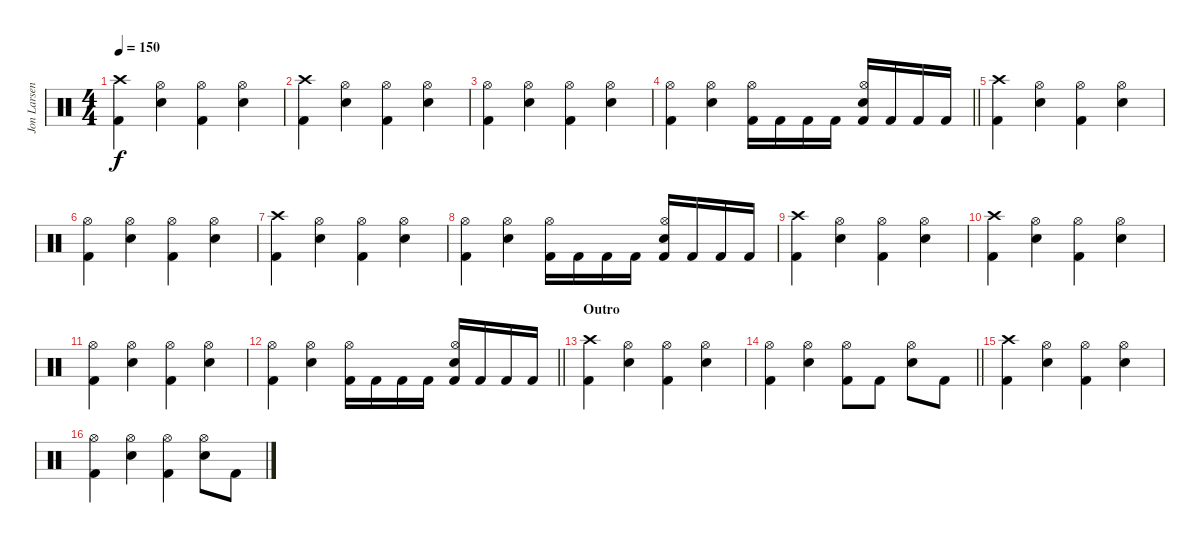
\track ("Jon Larsen" "Jon Larsen") {instrument percussion bank 10}
\staff {score}
\articulation defaults
\ts (4 4)
\tempo 150
\clef neutral
\ks c
("Crash high (hit)" "Kick (hit) 2").4{dy f} ("Hi-Hat (open)" "Electric Snare (hit)").4 ("Hi-Hat (open)" "Kick (hit) 2").4 ("Hi-Hat (open)" "Electric Snare (hit)").4 |
("Crash high (hit)" "Kick (hit) 2").4 ("Hi-Hat (open)" "Electric Snare (hit)").4 ("Hi-Hat (open)" "Kick (hit) 2").4 ("Hi-Hat (open)" "Electric Snare (hit)").4 |
("Hi-Hat (open)" "Kick (hit) 2").4 ("Hi-Hat (open)" "Electric Snare (hit)").4 ("Hi-Hat (open)" "Kick (hit) 2").4 ("Hi-Hat (open)" "Electric Snare (hit)").4 |
\barLineRight lightlight
("Hi-Hat (open)" "Kick (hit) 2").4 ("Hi-Hat (open)" "Electric Snare (hit)").4 ("Hi-Hat (open)" "Kick (hit) 2").16 "Kick (hit) 2".16 "Kick (hit) 2".16 "Kick (hit) 2".16 ("Hi-Hat (open)" "Electric Snare (hit)" "Kick (hit) 2").16 "Kick (hit) 2".16 "Kick (hit) 2".16 "Kick (hit) 2".16 |
("Crash high (hit)" "Kick (hit) 2").4 ("Hi-Hat (open)" "Electric Snare (hit)").4 ("Hi-Hat (open)" "Kick (hit) 2").4 ("Hi-Hat (open)" "Electric Snare (hit)").4 |
("Hi-Hat (open)" "Kick (hit) 2").4 ("Hi-Hat (open)" "Electric Snare (hit)").4 ("Hi-Hat (open)" "Kick (hit) 2").4 ("Hi-Hat (open)" "Electric Snare (hit)").4 |
("Crash high (hit)" "Kick (hit) 2").4 ("Hi-Hat (open)" "Electric Snare (hit)").4 ("Hi-Hat (open)" "Kick (hit) 2").4 ("Hi-Hat (open)" "Electric Snare (hit)").4 |
("Hi-Hat (open)" "Kick (hit) 2").4 ("Hi-Hat (open)" "Electric Snare (hit)").4 ("Hi-Hat (open)" "Kick (hit) 2").16 "Kick (hit) 2".16 "Kick (hit) 2".16 "Kick (hit) 2".16 ("Hi-Hat (open)" "Electric Snare (hit)" "Kick (hit) 2").16 "Kick (hit) 2".16 "Kick (hit) 2".16 "Kick (hit) 2".16 |
("Crash high (hit)" "Kick (hit) 2").4 ("Hi-Hat (open)" "Electric Snare (hit)").4 ("Hi-Hat (open)" "Kick (hit) 2").4 ("Hi-Hat (open)" "Electric Snare (hit)").4 |
("Crash high (hit)" "Kick (hit) 2").4 ("Hi-Hat (open)" "Electric Snare (hit)").4 ("Hi-Hat (open)" "Kick (hit) 2").4 ("Hi-Hat (open)" "Electric Snare (hit)").4 |
("Hi-Hat (open)" "Kick (hit) 2").4 ("Hi-Hat (open)" "Electric Snare (hit)").4 ("Hi-Hat (open)" "Kick (hit) 2").4 ("Hi-Hat (open)" "Electric Snare (hit)").4 |
\barLineRight lightlight
("Hi-Hat (open)" "Kick (hit) 2").4 ("Hi-Hat (open)" "Electric Snare (hit)").4 ("Hi-Hat (open)" "Kick (hit) 2").16 "Kick (hit) 2".16 "Kick (hit) 2".16 "Kick (hit) 2".16 ("Hi-Hat (open)" "Electric Snare (hit)" "Kick (hit) 2").16 "Kick (hit) 2".16 "Kick (hit) 2".16 "Kick (hit) 2".16 |
\section ("" "Outro")
("Crash high (hit)" "Kick (hit) 2").4 ("Hi-Hat (open)" "Electric Snare (hit)").4 ("Hi-Hat (open)" "Kick (hit) 2").4 ("Hi-Hat (open)" "Electric Snare (hit)").4 |
\barLineRight lightlight
("Hi-Hat (open)" "Kick (hit) 2").4 ("Hi-Hat (open)" "Electric Snare (hit)").4 ("Hi-Hat (open)" "Kick (hit) 2").8 "Kick (hit) 2".8 ("Hi-Hat (open)" "Electric Snare (hit)").8 "Kick (hit) 2".8 |
\section ("" "")
("Crash high (hit)" "Kick (hit) 2").4 ("Hi-Hat (open)" "Electric Snare (hit)").4 ("Hi-Hat (open)" "Kick (hit) 2").4 ("Hi-Hat (open)" "Electric Snare (hit)").4 |
("Hi-Hat (open)" "Kick (hit) 2").4 ("Hi-Hat (open)" "Electric Snare (hit)").4 ("Hi-Hat (open)" "Kick (hit) 2").4 ("Hi-Hat (open)" "Electric Snare (hit)").8 "Kick (hit) 2".8
